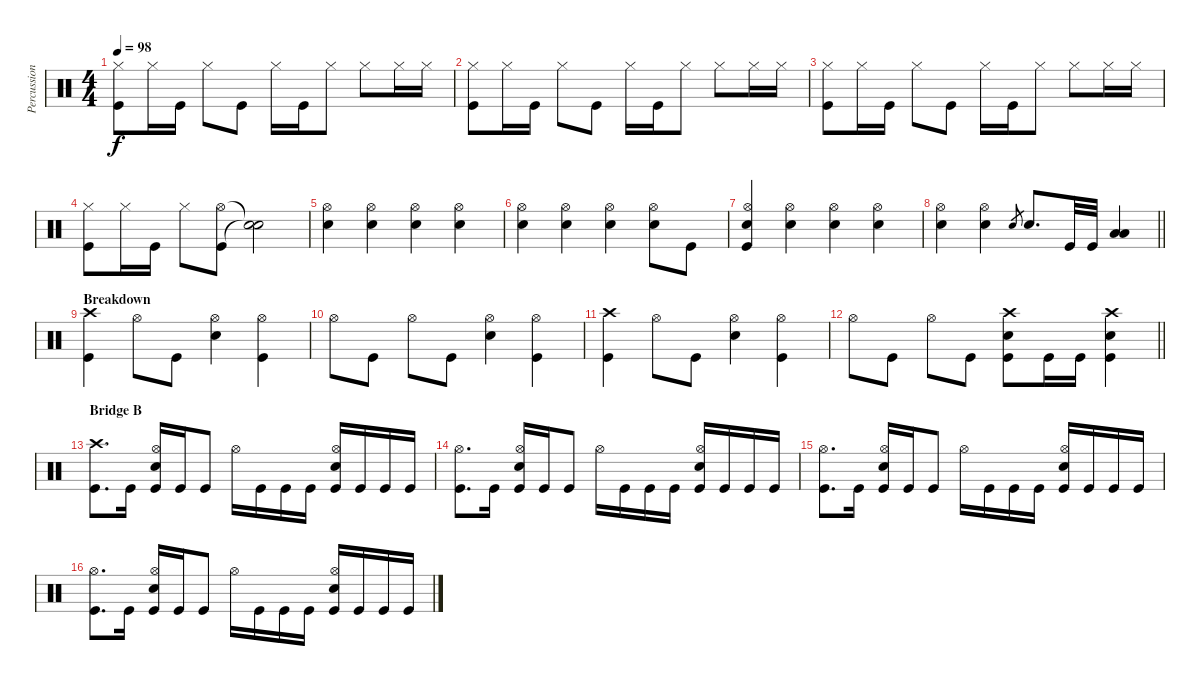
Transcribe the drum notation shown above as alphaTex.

\track ("Percussion" "Percussion") {instrument percussion}
\staff {score}
\articulation defaults
\ts (4 4)
\tempo 98
\clef neutral
\ks c
("Hi-Hat (closed)" "Kick (hit)").8{dy f} "Hi-Hat (closed)".16 "Kick (hit)".16 "Hi-Hat (closed)".8 "Kick (hit)".8 "Hi-Hat (closed)".16 "Kick (hit)".16 "Hi-Hat (closed)".8 "Hi-Hat (closed)".8 "Hi-Hat (closed)".16 "Hi-Hat (closed)".16 |
("Hi-Hat (closed)" "Kick (hit)").8 "Hi-Hat (closed)".16 "Kick (hit)".16 "Hi-Hat (closed)".8 "Kick (hit)".8 "Hi-Hat (closed)".16 "Kick (hit)".16 "Hi-Hat (closed)".8 "Hi-Hat (closed)".8 "Hi-Hat (closed)".16 "Hi-Hat (closed)".16 |
("Hi-Hat (closed)" "Kick (hit)").8 "Hi-Hat (closed)".16 "Kick (hit)".16 "Hi-Hat (closed)".8 "Kick (hit)".8 "Hi-Hat (closed)".16 "Kick (hit)".16 "Hi-Hat (closed)".8 "Hi-Hat (closed)".8 "Hi-Hat (closed)".16 "Hi-Hat (closed)".16 |
("Hi-Hat (closed)" "Kick (hit)").8 "Hi-Hat (closed)".16 "Kick (hit)".16 "Hi-Hat (closed)".8 ("Hi-Hat (open)" "Kick (hit)").8 ("Snare (hit)"{t} "Snare (hit)"{t}).2 |
("Hi-Hat (open)" "Electric Snare (hit)").4 ("Hi-Hat (open)" "Electric Snare (hit)").4 ("Hi-Hat (open)" "Electric Snare (hit)").4 ("Hi-Hat (open)" "Electric Snare (hit)").4 |
("Hi-Hat (open)" "Electric Snare (hit)").4 ("Hi-Hat (open)" "Electric Snare (hit)").4 ("Hi-Hat (open)" "Electric Snare (hit)").4 ("Hi-Hat (open)" "Electric Snare (hit)").8 "Kick (hit)".8 |
("Hi-Hat (open)" "Electric Snare (hit)" "Kick (hit)").4 ("Hi-Hat (open)" "Electric Snare (hit)").4 ("Hi-Hat (open)" "Electric Snare (hit)").4 ("Hi-Hat (open)" "Electric Snare (hit)").4 |
\barLineRight lightlight
("Hi-Hat (open)" "Electric Snare (hit)").4 ("Hi-Hat (open)" "Electric Snare (hit)").4 "Electric Snare (hit)".8{gr} "Electric Snare (hit)".8{d} "Kick (hit)".32 "Kick (hit)".32 ("Low Floor Tom (hit)" "Low Floor Tom (hit)").4 |
\section ("" "Breakdown")
("Crash high (hit)" "Kick (hit)").4 "Hi-Hat (open)".8 "Kick (hit)".8 ("Hi-Hat (open)" "Electric Snare (hit)").4 ("Hi-Hat (open)" "Kick (hit)").4 |
"Hi-Hat (open)".8 "Kick (hit)".8 "Hi-Hat (open)".8 "Kick (hit)".8 ("Hi-Hat (open)" "Electric Snare (hit)").4 ("Hi-Hat (open)" "Kick (hit)").4 |
("Crash high (hit)" "Kick (hit)").4 "Hi-Hat (open)".8 "Kick (hit)".8 ("Hi-Hat (open)" "Electric Snare (hit)").4 ("Hi-Hat (open)" "Kick (hit)").4 |
\barLineRight lightlight "Hi-Hat (open)".8 "Kick (hit)".8 "Hi-Hat (open)".8 "Kick (hit)".8
("Crash high (hit)" "Electric Snare (hit)" "Kick (hit)").8 "Kick (hit)".16 "Kick (hit)".16 ("Crash high (hit)" "Electric Snare (hit)" "Kick (hit)").4 |
\section ("" "Bridge B")
("Crash high (hit)" "Kick (hit)").8{d} "Kick (hit)".16 ("Hi-Hat (open)" "Electric Snare (hit)" "Kick (hit)").16 "Kick (hit)".16 "Kick (hit)".8 "Hi-Hat (open)".16 "Kick (hit)".16 "Kick (hit)".16 "Kick (hit)".16 ("Hi-Hat (open)" "Electric Snare (hit)" "Kick (hit)").16 "Kick (hit)".16 "Kick (hit)".16 "Kick (hit)".16 |
("Hi-Hat (open)" "Kick (hit)").8{d} "Kick (hit)".16 ("Hi-Hat (open)" "Electric Snare (hit)" "Kick (hit)").16 "Kick (hit)".16 "Kick (hit)".8 "Hi-Hat (open)".16 "Kick (hit)".16 "Kick (hit)".16 "Kick (hit)".16 ("Hi-Hat (open)" "Electric Snare (hit)" "Kick (hit)").16 "Kick (hit)".16 "Kick (hit)".16 "Kick (hit)".16 |
("Hi-Hat (open)" "Kick (hit)").8{d} "Kick (hit)".16 ("Hi-Hat (open)" "Electric Snare (hit)" "Kick (hit)").16 "Kick (hit)".16 "Kick (hit)".8 "Hi-Hat (open)".16 "Kick (hit)".16 "Kick (hit)".16 "Kick (hit)".16 ("Hi-Hat (open)" "Electric Snare (hit)" "Kick (hit)").16 "Kick (hit)".16 "Kick (hit)".16 "Kick (hit)".16 |
("Hi-Hat (open)" "Kick (hit)").8{d} "Kick (hit)".16 ("Hi-Hat (open)" "Electric Snare (hit)" "Kick (hit)").16 "Kick (hit)".16 "Kick (hit)".8 "Hi-Hat (open)".16 "Kick (hit)".16 "Kick (hit)".16 "Kick (hit)".16 ("Hi-Hat (open)" "Electric Snare (hit)" "Kick (hit)").16 "Kick (hit)".16 "Kick (hit)".16 "Kick (hit)".16
